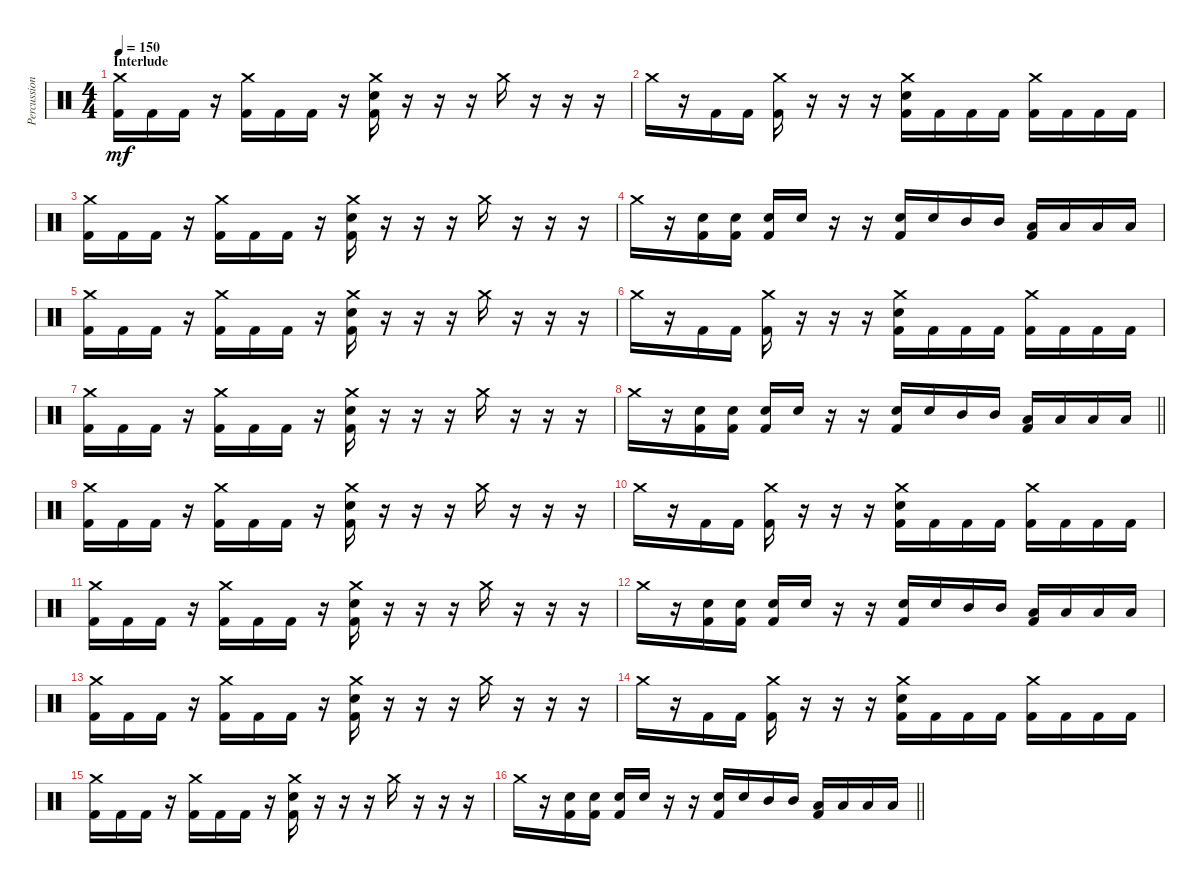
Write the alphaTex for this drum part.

\track ("Percussion" "Percussion") {instrument percussion}
\staff {score}
\articulation defaults
\ts (4 4)
\section ("" "Interlude")
\tempo 150
\clef neutral
\ks c
("Crash medium (hit)" "Kick (hit) 2").16{dy mf} "Kick (hit) 2".16 "Kick (hit) 2".16 r.16 ("Crash medium (hit)" "Kick (hit) 2").16 "Kick (hit) 2".16 "Kick (hit) 2".16 r.16 ("Crash medium (hit)" "Electric Snare (hit)" "Kick (hit) 2").16 r.16 r.16 r.16 "Crash medium (hit)".16 r.16 r.16 r.16 |
"Crash medium (hit)".16 r.16 "Kick (hit) 2".16 "Kick (hit) 2".16 ("Crash medium (hit)" "Kick (hit) 2").16 r.16 r.16 r.16 ("Crash medium (hit)" "Electric Snare (hit)" "Kick (hit) 2").16 "Kick (hit) 2".16 "Kick (hit) 2".16 "Kick (hit) 2".16 ("Crash medium (hit)" "Kick (hit) 2").16 "Kick (hit) 2".16 "Kick (hit) 2".16 "Kick (hit) 2".16 |
("Crash medium (hit)" "Kick (hit) 2").16 "Kick (hit) 2".16 "Kick (hit) 2".16 r.16 ("Crash medium (hit)" "Kick (hit) 2").16 "Kick (hit) 2".16 "Kick (hit) 2".16 r.16 ("Crash medium (hit)" "Electric Snare (hit)" "Kick (hit) 2").16 r.16 r.16 r.16 "Crash medium (hit)".16 r.16 r.16 r.16 |
"Crash medium (hit)".16 r.16 ("Electric Snare (hit)" "Kick (hit) 2").16 ("Electric Snare (hit)" "Kick (hit) 2").16 ("Electric Snare (hit)" "Kick (hit) 2").16 "Electric Snare (hit)".16 r.16 r.16 ("Electric Snare (hit)" "Kick (hit) 2").16 "Electric Snare (hit)".16 "Mid Tom (hit)".16 "Mid Tom (hit)".16 ("Low Tom (hit)" "Kick (hit) 2").16 "Low Tom (hit)".16 "Low Floor Tom (hit)".16 "Low Floor Tom (hit)".16 |
("Crash medium (hit)" "Kick (hit) 2").16 "Kick (hit) 2".16 "Kick (hit) 2".16 r.16 ("Crash medium (hit)" "Kick (hit) 2").16 "Kick (hit) 2".16 "Kick (hit) 2".16 r.16 ("Crash medium (hit)" "Electric Snare (hit)" "Kick (hit) 2").16 r.16 r.16 r.16 "Crash medium (hit)".16 r.16 r.16 r.16 |
"Crash medium (hit)".16 r.16 "Kick (hit) 2".16 "Kick (hit) 2".16 ("Crash medium (hit)" "Kick (hit) 2").16 r.16 r.16 r.16 ("Crash medium (hit)" "Electric Snare (hit)" "Kick (hit) 2").16 "Kick (hit) 2".16 "Kick (hit) 2".16 "Kick (hit) 2".16 ("Crash medium (hit)" "Kick (hit) 2").16 "Kick (hit) 2".16 "Kick (hit) 2".16 "Kick (hit) 2".16 |
("Crash medium (hit)" "Kick (hit) 2").16 "Kick (hit) 2".16 "Kick (hit) 2".16 r.16 ("Crash medium (hit)" "Kick (hit) 2").16 "Kick (hit) 2".16 "Kick (hit) 2".16 r.16 ("Crash medium (hit)" "Electric Snare (hit)" "Kick (hit) 2").16 r.16 r.16 r.16 "Crash medium (hit)".16 r.16 r.16 r.16 |
\barLineRight lightlight "Crash medium (hit)".16
r.16 ("Electric Snare (hit)" "Kick (hit) 2").16 ("Electric Snare (hit)" "Kick (hit) 2").16 ("Electric Snare (hit)" "Kick (hit) 2").16 "Electric Snare (hit)".16 r.16 r.16 ("Electric Snare (hit)" "Kick (hit) 2").16 "Electric Snare (hit)".16 "Mid Tom (hit)".16 "Mid Tom (hit)".16 ("Low Tom (hit)" "Kick (hit) 2").16 "Low Tom (hit)".16 "Low Floor Tom (hit)".16 "Low Floor Tom (hit)".16 |
("Crash medium (hit)" "Kick (hit) 2").16 "Kick (hit) 2".16 "Kick (hit) 2".16 r.16 ("Crash medium (hit)" "Kick (hit) 2").16 "Kick (hit) 2".16 "Kick (hit) 2".16 r.16 ("Crash medium (hit)" "Electric Snare (hit)" "Kick (hit) 2").16 r.16 r.16 r.16 "Crash medium (hit)".16 r.16 r.16 r.16 |
"Crash medium (hit)".16 r.16 "Kick (hit) 2".16 "Kick (hit) 2".16 ("Crash medium (hit)" "Kick (hit) 2").16 r.16 r.16 r.16 ("Crash medium (hit)" "Electric Snare (hit)" "Kick (hit) 2").16 "Kick (hit) 2".16 "Kick (hit) 2".16 "Kick (hit) 2".16 ("Crash medium (hit)" "Kick (hit) 2").16 "Kick (hit) 2".16 "Kick (hit) 2".16 "Kick (hit) 2".16 |
("Crash medium (hit)" "Kick (hit) 2").16 "Kick (hit) 2".16 "Kick (hit) 2".16 r.16 ("Crash medium (hit)" "Kick (hit) 2").16 "Kick (hit) 2".16 "Kick (hit) 2".16 r.16 ("Crash medium (hit)" "Electric Snare (hit)" "Kick (hit) 2").16 r.16 r.16 r.16 "Crash medium (hit)".16 r.16 r.16 r.16 |
"Crash medium (hit)".16 r.16 ("Electric Snare (hit)" "Kick (hit) 2").16 ("Electric Snare (hit)" "Kick (hit) 2").16 ("Electric Snare (hit)" "Kick (hit) 2").16 "Electric Snare (hit)".16 r.16 r.16 ("Electric Snare (hit)" "Kick (hit) 2").16 "Electric Snare (hit)".16 "Mid Tom (hit)".16 "Mid Tom (hit)".16 ("Low Tom (hit)" "Kick (hit) 2").16 "Low Tom (hit)".16 "Low Floor Tom (hit)".16 "Low Floor Tom (hit)".16 |
("Crash medium (hit)" "Kick (hit) 2").16 "Kick (hit) 2".16 "Kick (hit) 2".16 r.16 ("Crash medium (hit)" "Kick (hit) 2").16 "Kick (hit) 2".16 "Kick (hit) 2".16 r.16 ("Crash medium (hit)" "Electric Snare (hit)" "Kick (hit) 2").16 r.16 r.16 r.16 "Crash medium (hit)".16 r.16 r.16 r.16 |
"Crash medium (hit)".16 r.16 "Kick (hit) 2".16 "Kick (hit) 2".16 ("Crash medium (hit)" "Kick (hit) 2").16 r.16 r.16 r.16 ("Crash medium (hit)" "Electric Snare (hit)" "Kick (hit) 2").16 "Kick (hit) 2".16 "Kick (hit) 2".16 "Kick (hit) 2".16 ("Crash medium (hit)" "Kick (hit) 2").16 "Kick (hit) 2".16 "Kick (hit) 2".16 "Kick (hit) 2".16 |
("Crash medium (hit)" "Kick (hit) 2").16 "Kick (hit) 2".16 "Kick (hit) 2".16 r.16 ("Crash medium (hit)" "Kick (hit) 2").16 "Kick (hit) 2".16 "Kick (hit) 2".16 r.16 ("Crash medium (hit)" "Electric Snare (hit)" "Kick (hit) 2").16 r.16 r.16 r.16 "Crash medium (hit)".16 r.16 r.16 r.16 |
\barLineRight lightlight "Crash medium (hit)".16
r.16 ("Electric Snare (hit)" "Kick (hit) 2").16 ("Electric Snare (hit)" "Kick (hit) 2").16 ("Electric Snare (hit)" "Kick (hit) 2").16 "Electric Snare (hit)".16 r.16 r.16 ("Electric Snare (hit)" "Kick (hit) 2").16 "Electric Snare (hit)".16 "Mid Tom (hit)".16 "Mid Tom (hit)".16 ("Low Tom (hit)" "Kick (hit) 2").16 "Low Tom (hit)".16 "Low Floor Tom (hit)".16 "Low Floor Tom (hit)".16
